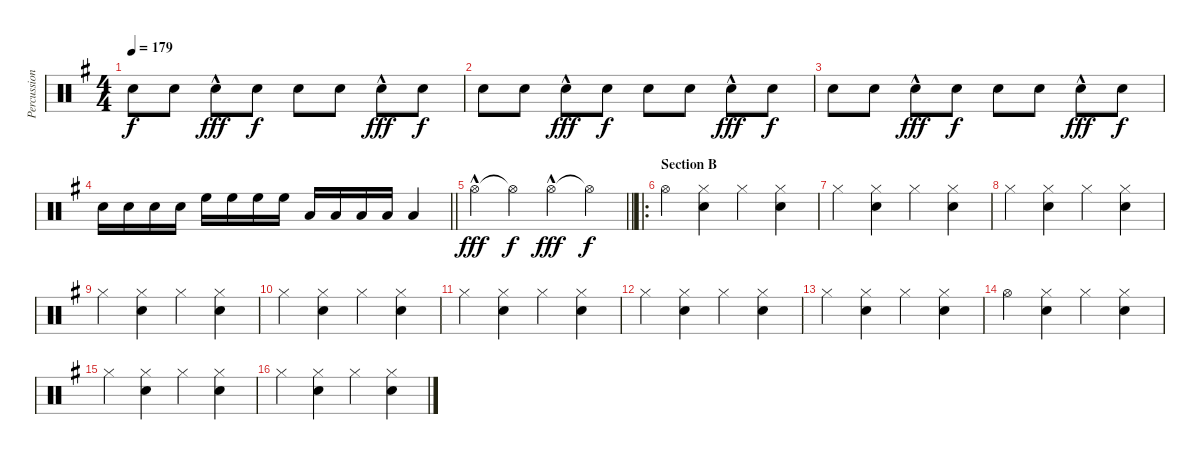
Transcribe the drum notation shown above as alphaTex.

\track ("Percussion 01" "Percussion") {instrument percussion}
\staff {score}
\articulation defaults
\ts (4 4)
\tempo 179
\clef neutral
\ks g "Snare (hit) 2".8{dy f} "Snare (hit) 2".8 "Snare (hit) 2"{hac}.8{dy fff} "Snare (hit) 2".8{dy f} "Snare (hit) 2".8 "Snare (hit) 2".8 "Snare (hit) 2"{hac}.8{dy fff} "Snare (hit) 2".8{dy f}
|
"Snare (hit) 2".8 "Snare (hit) 2".8 "Snare (hit) 2"{hac}.8{dy fff} "Snare (hit) 2".8{dy f} "Snare (hit) 2".8 "Snare (hit) 2".8 "Snare (hit) 2"{hac}.8{dy fff} "Snare (hit) 2".8{dy f} |
"Snare (hit) 2".8 "Snare (hit) 2".8 "Snare (hit) 2"{hac}.8{dy fff} "Snare (hit) 2".8{dy f} "Snare (hit) 2".8 "Snare (hit) 2".8 "Snare (hit) 2"{hac}.8{dy fff} "Snare (hit) 2".8{dy f} |
\barLineRight lightlight "Snare (hit) 2".16 "Snare (hit) 2".16 "Snare (hit) 2".16 "Snare (hit) 2".16 "High Floor Tom (hit)".16 "High Floor Tom (hit)".16 "High Floor Tom (hit)".16 "High Floor Tom (hit)".16 "Low Tom (hit)".16 "Low Tom (hit)".16 "Low Tom (hit)".16 "Low Tom (hit)".16 "Low Tom (hit)".4
|
\barLineRight lightlight "Hi-Hat (open)"{hac}.4{dy fff} "Hi-Hat (open)"{t}.4{dy f} "Hi-Hat (open)"{hac}.4{dy fff} "Hi-Hat (open)"{t}.4{dy f}
|
\ro
\section ("" "Section B")
"Hi-Hat (open)".4 ("Hi-Hat (closed)" "Snare (hit) 2").4 "Hi-Hat (closed)".4 ("Hi-Hat (closed)" "Snare (hit) 2").4 |
"Hi-Hat (closed)".4 ("Hi-Hat (closed)" "Snare (hit) 2").4 "Hi-Hat (closed)".4 ("Hi-Hat (closed)" "Snare (hit) 2").4 |
"Hi-Hat (closed)".4 ("Hi-Hat (closed)" "Snare (hit) 2").4 "Hi-Hat (closed)".4 ("Hi-Hat (closed)" "Snare (hit) 2").4 |
"Hi-Hat (closed)".4 ("Hi-Hat (closed)" "Snare (hit) 2").4 "Hi-Hat (closed)".4 ("Hi-Hat (closed)" "Snare (hit) 2").4 |
"Hi-Hat (closed)".4 ("Hi-Hat (closed)" "Snare (hit) 2").4 "Hi-Hat (closed)".4 ("Hi-Hat (closed)" "Snare (hit) 2").4 |
"Hi-Hat (closed)".4 ("Hi-Hat (closed)" "Snare (hit) 2").4 "Hi-Hat (closed)".4 ("Hi-Hat (closed)" "Snare (hit) 2").4 |
"Hi-Hat (closed)".4 ("Hi-Hat (closed)" "Snare (hit) 2").4 "Hi-Hat (closed)".4 ("Hi-Hat (closed)" "Snare (hit) 2").4 |
"Hi-Hat (closed)".4 ("Hi-Hat (closed)" "Snare (hit) 2").4 "Hi-Hat (closed)".4 ("Hi-Hat (closed)" "Snare (hit) 2").4 |
"Hi-Hat (open)".4 ("Hi-Hat (closed)" "Snare (hit) 2").4 "Hi-Hat (closed)".4 ("Hi-Hat (closed)" "Snare (hit) 2").4 |
"Hi-Hat (closed)".4 ("Hi-Hat (closed)" "Snare (hit) 2").4 "Hi-Hat (closed)".4 ("Hi-Hat (closed)" "Snare (hit) 2").4 |
"Hi-Hat (closed)".4 ("Hi-Hat (closed)" "Snare (hit) 2").4 "Hi-Hat (closed)".4 ("Hi-Hat (closed)" "Snare (hit) 2").4
